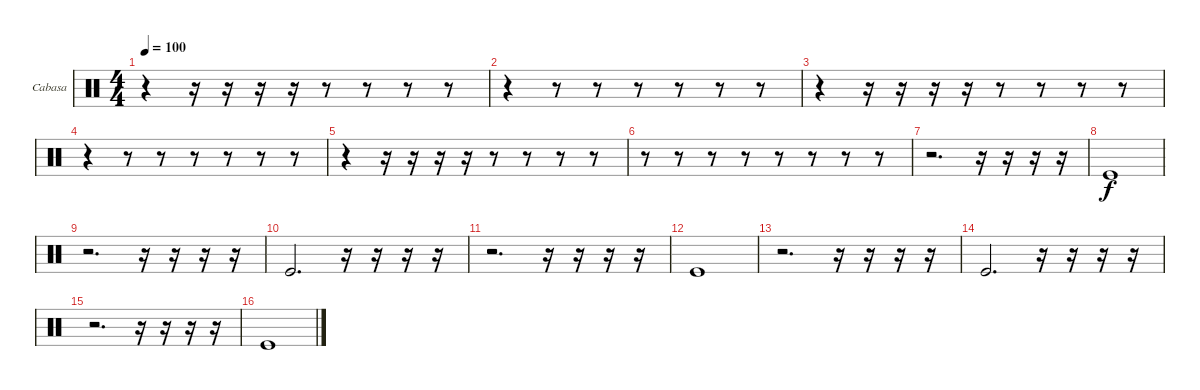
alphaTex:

\bracketExtendMode groupsimilarinstruments
\firstSystemTrackNameOrientation horizontal
\otherSystemsTrackNameOrientation horizontal
\track ("Cabasa" "Cabasa") {instrument percussion}
\staff {score}
\articulation defaults
\ts (4 4)
\tempo 100
\clef neutral
\ks c
r.4{dy f} r.16 r.16 r.16 r.16 r.8 r.8 r.8 r.8 |
r.4 r.8 r.8 r.8 r.8 r.8 r.8 |
r.4 r.16 r.16 r.16 r.16 r.8 r.8 r.8 r.8 |
r.4 r.8 r.8 r.8 r.8 r.8 r.8 |
r.4 r.16 r.16 r.16 r.16 r.8 r.8 r.8 r.8 |
r.8 r.8 r.8 r.8 r.8 r.8 r.8 r.8 |
r.2{d} r.16 r.16 r.16 r.16 |
"Kick (hit)".1 |
r.2{d} r.16 r.16 r.16 r.16 |
"Kick (hit)".2{d} r.16 r.16 r.16 r.16 |
r.2{d} r.16 r.16 r.16 r.16 |
"Kick (hit)".1 |
r.2{d} r.16 r.16 r.16 r.16 |
"Kick (hit)".2{d} r.16 r.16 r.16 r.16 |
r.2{d} r.16 r.16 r.16 r.16 |
"Kick (hit)".1
